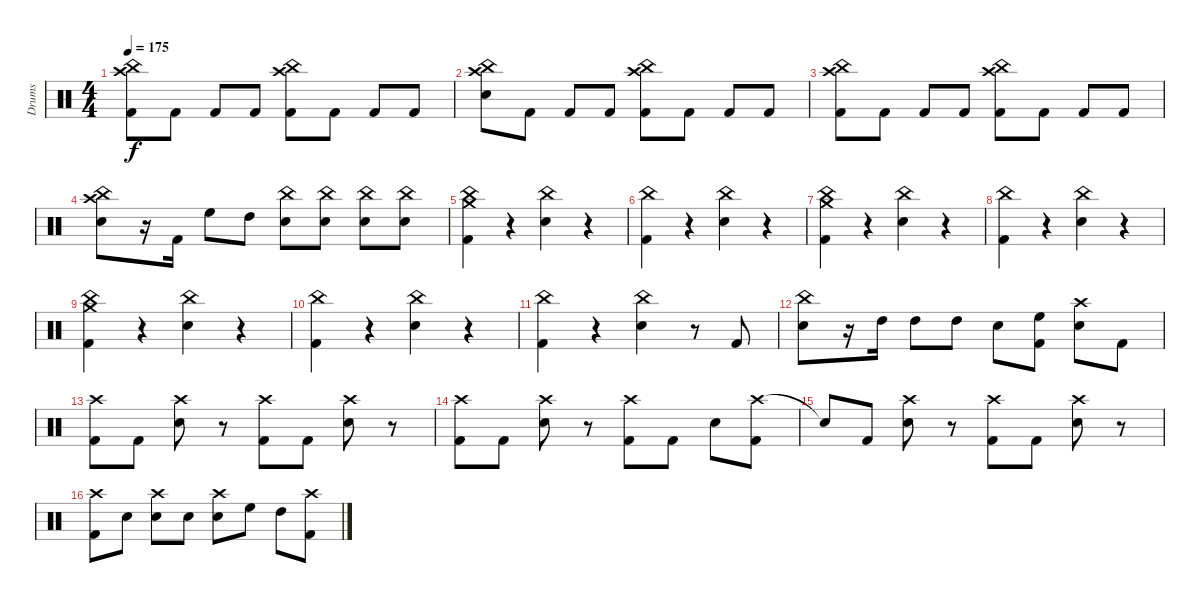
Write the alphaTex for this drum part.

\track ("Drums" "Drums") {instrument percussion}
\staff {score}
\articulation defaults
\ts (4 4)
\tempo 175
\clef neutral
\ks c
("Crash high (hit)" "China (hit)" "Kick (hit) 2").8{dy f} "Kick (hit) 2".8 "Kick (hit) 2".8 "Kick (hit) 2".8 ("Crash high (hit)" "China (hit)" "Kick (hit) 2").8 "Kick (hit) 2".8 "Kick (hit) 2".8 "Kick (hit) 2".8 |
("Crash high (hit)" "China (hit)" "Electric Snare (hit)").8 "Kick (hit) 2".8 "Kick (hit) 2".8 "Kick (hit) 2".8 ("Crash high (hit)" "China (hit)" "Kick (hit) 2").8 "Kick (hit) 2".8 "Kick (hit) 2".8 "Kick (hit) 2".8 |
("Crash high (hit)" "China (hit)" "Kick (hit) 2").8 "Kick (hit) 2".8 "Kick (hit) 2".8 "Kick (hit) 2".8 ("Crash high (hit)" "China (hit)" "Kick (hit) 2").8 "Kick (hit) 2".8 "Kick (hit) 2".8 "Kick (hit) 2".8 |
("Crash high (hit)" "China (hit)" "Electric Snare (hit)").8 r.16 "Kick (hit) 2".16 "High Floor Tom (hit)".8 "High Tom (hit)".8 ("China (hit)" "Electric Snare (hit)").8 ("China (hit)" "Electric Snare (hit)").8 ("China (hit)" "Electric Snare (hit)").8 ("China (hit)" "Electric Snare (hit)").8 |
("China (hit)" "Crash medium (hit)" "Kick (hit) 2").4 r.4 ("China (hit)" "Electric Snare (hit)").4 r.4 |
("China (hit)" "Kick (hit) 2").4 r.4 ("China (hit)" "Electric Snare (hit)").4 r.4 |
("China (hit)" "Crash medium (hit)" "Kick (hit) 2").4 r.4 ("China (hit)" "Electric Snare (hit)").4 r.4 |
("China (hit)" "Kick (hit) 2").4 r.4 ("China (hit)" "Electric Snare (hit)").4 r.4 |
("China (hit)" "Crash medium (hit)" "Kick (hit) 2").4 r.4 ("China (hit)" "Electric Snare (hit)").4 r.4 |
("China (hit)" "Kick (hit) 2").4 r.4 ("China (hit)" "Electric Snare (hit)").4 r.4 |
("China (hit)" "Kick (hit) 2").4 r.4 ("China (hit)" "Electric Snare (hit)").4 r.8 "Kick (hit) 2".8 |
("China (hit)" "Electric Snare (hit)").8 r.16 "High Tom (hit)".16 "High Tom (hit)".8 "High Tom (hit)".8 "Electric Snare (hit)".8 ("High Floor Tom (hit)" "Kick (hit) 2").8 ("Crash high (hit)" "Electric Snare (hit)").8 "Kick (hit) 2".8 |
("Crash high (hit)" "Kick (hit) 2").8 "Kick (hit) 2".8 ("Crash high (hit)" "Electric Snare (hit)").8 r.8 ("Crash high (hit)" "Kick (hit) 2").8 "Kick (hit) 2".8 ("Crash high (hit)" "Electric Snare (hit)").8 r.8 |
("Crash high (hit)" "Kick (hit) 2").8 "Kick (hit) 2".8 ("Crash high (hit)" "Electric Snare (hit)").8 r.8 ("Crash high (hit)" "Kick (hit) 2").8 "Kick (hit) 2".8 "Electric Snare (hit)".8 ("Crash high (hit)" "Kick (hit) 2").8 |
"Snare (hit)"{t}.8 "Kick (hit) 2".8 ("Crash high (hit)" "Electric Snare (hit)").8 r.8 ("Crash high (hit)" "Kick (hit) 2").8 "Kick (hit) 2".8 ("Crash high (hit)" "Electric Snare (hit)").8 r.8 |
("Crash high (hit)" "Kick (hit) 2").8 "Electric Snare (hit)".8 ("Crash high (hit)" "Electric Snare (hit)").8 "Electric Snare (hit)".8 ("Crash high (hit)" "Electric Snare (hit)").8 "High Floor Tom (hit)".8 "High Tom (hit)".8 ("Crash high (hit)" "Kick (hit) 2").8
